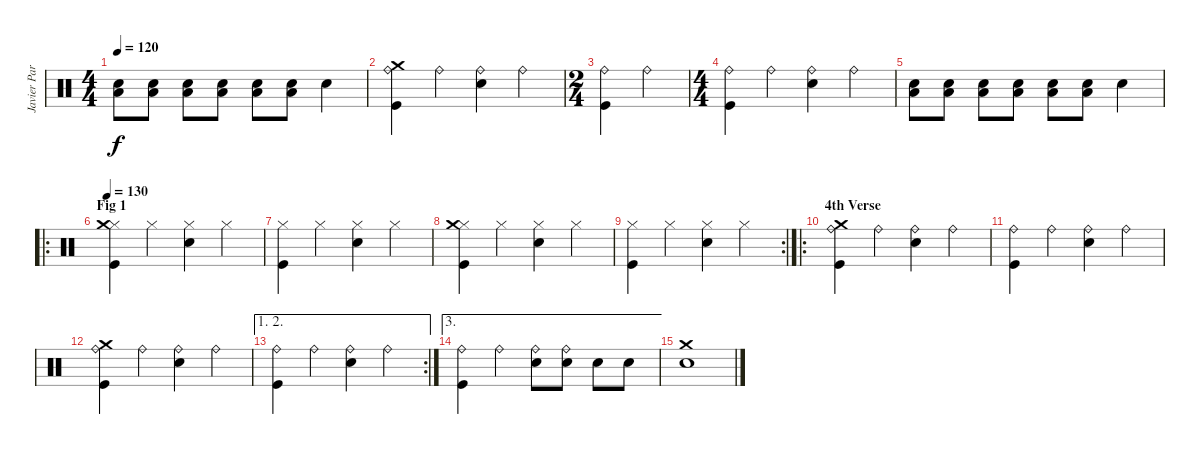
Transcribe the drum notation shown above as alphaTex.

\track ("Javier Partida" "Javier Par") {instrument percussion}
\staff {score}
\articulation defaults
\ts (4 4)
\tempo 120
\clef neutral
\ks c
("Snare (hit) 2" "Low Tom (hit)").8{dy f} ("Snare (hit) 2" "Low Tom (hit)").8 ("Snare (hit) 2" "Low Tom (hit)").8 ("Snare (hit) 2" "Low Tom (hit)").8 ("Snare (hit) 2" "Low Tom (hit)").8 ("Snare (hit) 2" "Low Tom (hit)").8 "Snare (hit) 2".4 |
("Ride (bell)" "Kick (hit)" "Crash medium (hit)").4 "Ride (bell)".4 ("Ride (bell)" "Snare (hit) 2").4 "Ride (bell)".4 |
\ts (2 4)
("Ride (bell)" "Kick (hit)").4 "Ride (bell)".4 |
\ts (4 4)
("Ride (bell)" "Kick (hit)").4 "Ride (bell)".4 ("Ride (bell)" "Snare (hit) 2").4 "Ride (bell)".4 |
("Snare (hit) 2" "Low Tom (hit)").8 ("Snare (hit) 2" "Low Tom (hit)").8 ("Snare (hit) 2" "Low Tom (hit)").8 ("Snare (hit) 2" "Low Tom (hit)").8 ("Snare (hit) 2" "Low Tom (hit)").8 ("Snare (hit) 2" "Low Tom (hit)").8 "Snare (hit) 2".4 |
\ro
\section ("" "Fig 1")
\tempo 130
("Hi-Hat (closed)" "Kick (hit)" "Crash medium (hit)").4 "Hi-Hat (closed)".4 ("Hi-Hat (closed)" "Snare (hit) 2").4 "Hi-Hat (closed)".4 |
("Hi-Hat (closed)" "Kick (hit)").4 "Hi-Hat (closed)".4 ("Hi-Hat (closed)" "Snare (hit) 2").4 "Hi-Hat (closed)".4 |
("Hi-Hat (closed)" "Kick (hit)" "Crash medium (hit)").4 "Hi-Hat (closed)".4 ("Hi-Hat (closed)" "Snare (hit) 2").4 "Hi-Hat (closed)".4 |
\rc 2
("Hi-Hat (closed)" "Kick (hit)").4 "Hi-Hat (closed)".4 ("Hi-Hat (closed)" "Snare (hit) 2").4 "Hi-Hat (closed)".4 |
\ro
\section ("" "4th Verse")
("Ride (bell)" "Kick (hit)" "Crash medium (hit)").4 "Ride (bell)".4 ("Ride (bell)" "Snare (hit) 2").4 "Ride (bell)".4 |
("Ride (bell)" "Kick (hit)").4 "Ride (bell)".4 ("Ride (bell)" "Snare (hit) 2").4 "Ride (bell)".4 |
("Ride (bell)" "Kick (hit)" "Crash medium (hit)").4 "Ride (bell)".4 ("Ride (bell)" "Snare (hit) 2").4 "Ride (bell)".4 |
\ae (1 2)
\rc 2
("Ride (bell)" "Kick (hit)").4 "Ride (bell)".4 ("Ride (bell)" "Snare (hit) 2").4 "Ride (bell)".4 |
\ae 3
("Ride (bell)" "Kick (hit)").4 "Ride (bell)".4 ("Ride (bell)" "Snare (hit) 2").8 ("Ride (bell)" "Snare (hit) 2").8 "Snare (hit) 2".8 "Snare (hit) 2".8 |
("Snare (hit) 2" "Crash medium (hit)").1
